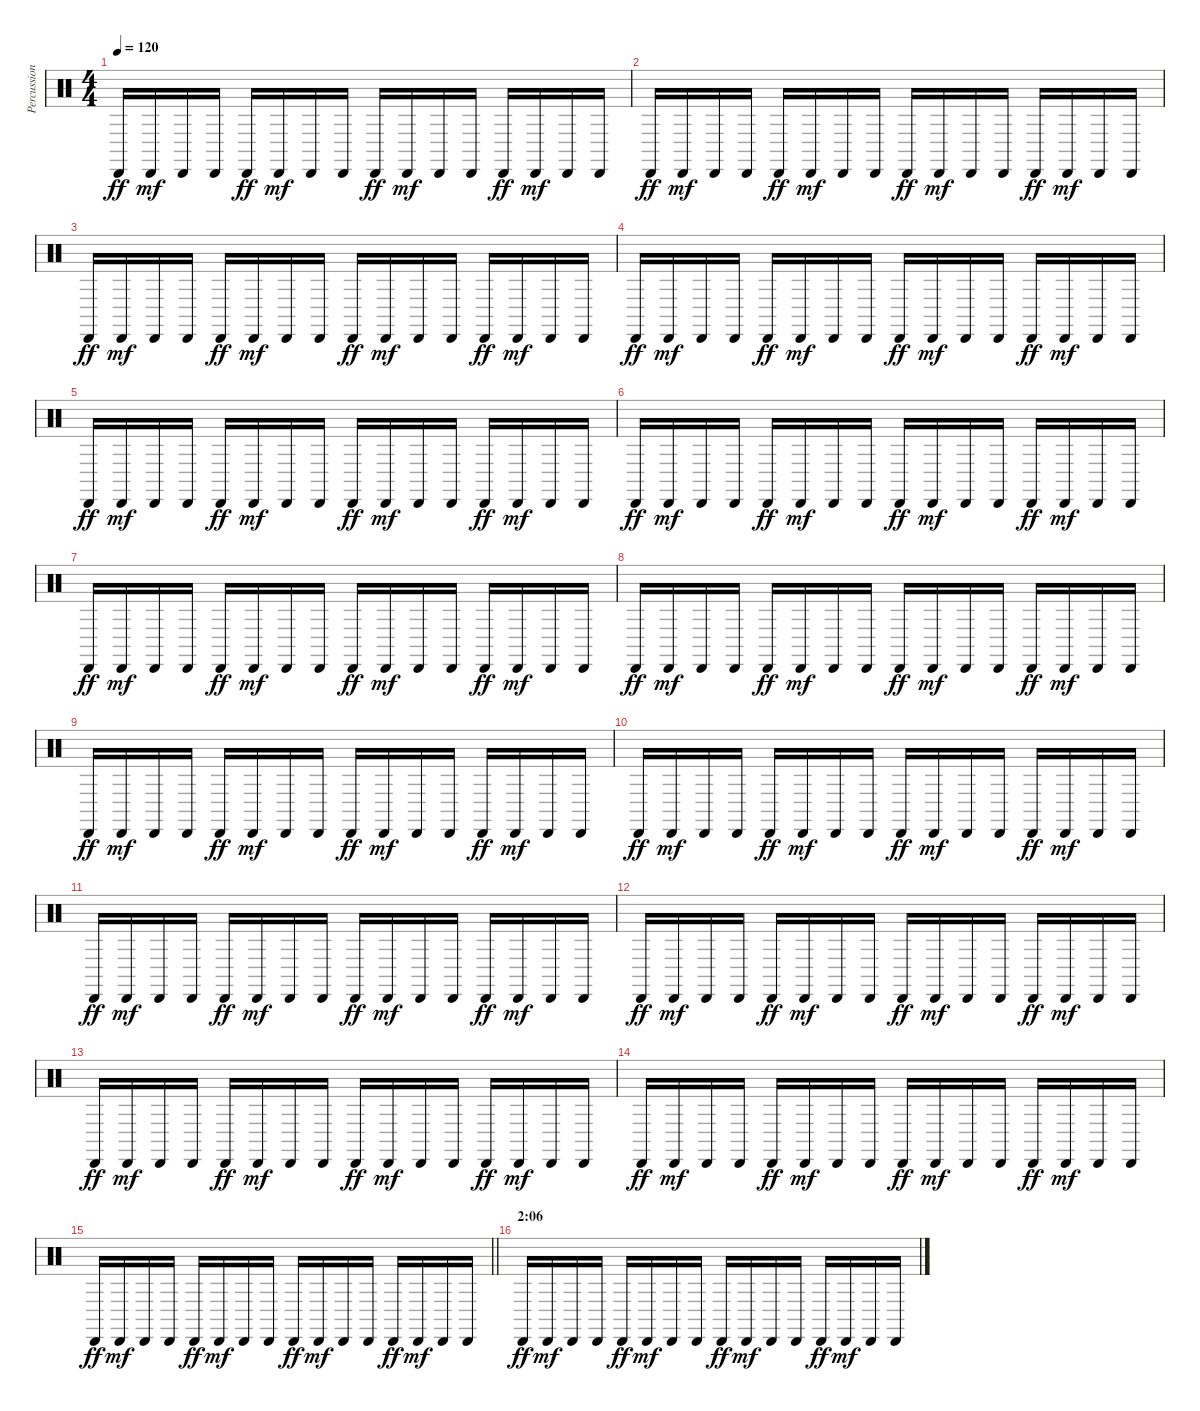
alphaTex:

\track ("Percussion" "Percussion") {instrument percussion}
\staff {score}
\articulation defaults
\ts (4 4)
\tempo 120
\clef neutral
\ks c "Cabasa (hit)".16{dy ff} "Cabasa (hit)".16{dy mf} "Cabasa (hit)".16 "Cabasa (hit)".16 "Cabasa (hit)".16{dy ff} "Cabasa (hit)".16{dy mf} "Cabasa (hit)".16 "Cabasa (hit)".16 "Cabasa (hit)".16{dy ff} "Cabasa (hit)".16{dy mf} "Cabasa (hit)".16 "Cabasa (hit)".16 "Cabasa (hit)".16{dy ff} "Cabasa (hit)".16{dy mf} "Cabasa (hit)".16 "Cabasa (hit)".16
|
"Cabasa (hit)".16{dy ff} "Cabasa (hit)".16{dy mf} "Cabasa (hit)".16 "Cabasa (hit)".16 "Cabasa (hit)".16{dy ff} "Cabasa (hit)".16{dy mf} "Cabasa (hit)".16 "Cabasa (hit)".16 "Cabasa (hit)".16{dy ff} "Cabasa (hit)".16{dy mf} "Cabasa (hit)".16 "Cabasa (hit)".16 "Cabasa (hit)".16{dy ff} "Cabasa (hit)".16{dy mf} "Cabasa (hit)".16 "Cabasa (hit)".16 |
"Cabasa (hit)".16{dy ff} "Cabasa (hit)".16{dy mf} "Cabasa (hit)".16 "Cabasa (hit)".16 "Cabasa (hit)".16{dy ff} "Cabasa (hit)".16{dy mf} "Cabasa (hit)".16 "Cabasa (hit)".16 "Cabasa (hit)".16{dy ff} "Cabasa (hit)".16{dy mf} "Cabasa (hit)".16 "Cabasa (hit)".16 "Cabasa (hit)".16{dy ff} "Cabasa (hit)".16{dy mf} "Cabasa (hit)".16 "Cabasa (hit)".16 |
"Cabasa (hit)".16{dy ff} "Cabasa (hit)".16{dy mf} "Cabasa (hit)".16 "Cabasa (hit)".16 "Cabasa (hit)".16{dy ff} "Cabasa (hit)".16{dy mf} "Cabasa (hit)".16 "Cabasa (hit)".16 "Cabasa (hit)".16{dy ff} "Cabasa (hit)".16{dy mf} "Cabasa (hit)".16 "Cabasa (hit)".16 "Cabasa (hit)".16{dy ff} "Cabasa (hit)".16{dy mf} "Cabasa (hit)".16 "Cabasa (hit)".16 |
"Cabasa (hit)".16{dy ff} "Cabasa (hit)".16{dy mf} "Cabasa (hit)".16 "Cabasa (hit)".16 "Cabasa (hit)".16{dy ff} "Cabasa (hit)".16{dy mf} "Cabasa (hit)".16 "Cabasa (hit)".16 "Cabasa (hit)".16{dy ff} "Cabasa (hit)".16{dy mf} "Cabasa (hit)".16 "Cabasa (hit)".16 "Cabasa (hit)".16{dy ff} "Cabasa (hit)".16{dy mf} "Cabasa (hit)".16 "Cabasa (hit)".16 |
"Cabasa (hit)".16{dy ff} "Cabasa (hit)".16{dy mf} "Cabasa (hit)".16 "Cabasa (hit)".16 "Cabasa (hit)".16{dy ff} "Cabasa (hit)".16{dy mf} "Cabasa (hit)".16 "Cabasa (hit)".16 "Cabasa (hit)".16{dy ff} "Cabasa (hit)".16{dy mf} "Cabasa (hit)".16 "Cabasa (hit)".16 "Cabasa (hit)".16{dy ff} "Cabasa (hit)".16{dy mf} "Cabasa (hit)".16 "Cabasa (hit)".16 |
"Cabasa (hit)".16{dy ff} "Cabasa (hit)".16{dy mf} "Cabasa (hit)".16 "Cabasa (hit)".16 "Cabasa (hit)".16{dy ff} "Cabasa (hit)".16{dy mf} "Cabasa (hit)".16 "Cabasa (hit)".16 "Cabasa (hit)".16{dy ff} "Cabasa (hit)".16{dy mf} "Cabasa (hit)".16 "Cabasa (hit)".16 "Cabasa (hit)".16{dy ff} "Cabasa (hit)".16{dy mf} "Cabasa (hit)".16 "Cabasa (hit)".16 |
"Cabasa (hit)".16{dy ff} "Cabasa (hit)".16{dy mf} "Cabasa (hit)".16 "Cabasa (hit)".16 "Cabasa (hit)".16{dy ff} "Cabasa (hit)".16{dy mf} "Cabasa (hit)".16 "Cabasa (hit)".16 "Cabasa (hit)".16{dy ff} "Cabasa (hit)".16{dy mf} "Cabasa (hit)".16 "Cabasa (hit)".16 "Cabasa (hit)".16{dy ff} "Cabasa (hit)".16{dy mf} "Cabasa (hit)".16 "Cabasa (hit)".16 |
"Cabasa (hit)".16{dy ff} "Cabasa (hit)".16{dy mf} "Cabasa (hit)".16 "Cabasa (hit)".16 "Cabasa (hit)".16{dy ff} "Cabasa (hit)".16{dy mf} "Cabasa (hit)".16 "Cabasa (hit)".16 "Cabasa (hit)".16{dy ff} "Cabasa (hit)".16{dy mf} "Cabasa (hit)".16 "Cabasa (hit)".16 "Cabasa (hit)".16{dy ff} "Cabasa (hit)".16{dy mf} "Cabasa (hit)".16 "Cabasa (hit)".16 |
"Cabasa (hit)".16{dy ff} "Cabasa (hit)".16{dy mf} "Cabasa (hit)".16 "Cabasa (hit)".16 "Cabasa (hit)".16{dy ff} "Cabasa (hit)".16{dy mf} "Cabasa (hit)".16 "Cabasa (hit)".16 "Cabasa (hit)".16{dy ff} "Cabasa (hit)".16{dy mf} "Cabasa (hit)".16 "Cabasa (hit)".16 "Cabasa (hit)".16{dy ff} "Cabasa (hit)".16{dy mf} "Cabasa (hit)".16 "Cabasa (hit)".16 |
"Cabasa (hit)".16{dy ff} "Cabasa (hit)".16{dy mf} "Cabasa (hit)".16 "Cabasa (hit)".16 "Cabasa (hit)".16{dy ff} "Cabasa (hit)".16{dy mf} "Cabasa (hit)".16 "Cabasa (hit)".16 "Cabasa (hit)".16{dy ff} "Cabasa (hit)".16{dy mf} "Cabasa (hit)".16 "Cabasa (hit)".16 "Cabasa (hit)".16{dy ff} "Cabasa (hit)".16{dy mf} "Cabasa (hit)".16 "Cabasa (hit)".16 |
"Cabasa (hit)".16{dy ff} "Cabasa (hit)".16{dy mf} "Cabasa (hit)".16 "Cabasa (hit)".16 "Cabasa (hit)".16{dy ff} "Cabasa (hit)".16{dy mf} "Cabasa (hit)".16 "Cabasa (hit)".16 "Cabasa (hit)".16{dy ff} "Cabasa (hit)".16{dy mf} "Cabasa (hit)".16 "Cabasa (hit)".16 "Cabasa (hit)".16{dy ff} "Cabasa (hit)".16{dy mf} "Cabasa (hit)".16 "Cabasa (hit)".16 |
"Cabasa (hit)".16{dy ff} "Cabasa (hit)".16{dy mf} "Cabasa (hit)".16 "Cabasa (hit)".16 "Cabasa (hit)".16{dy ff} "Cabasa (hit)".16{dy mf} "Cabasa (hit)".16 "Cabasa (hit)".16 "Cabasa (hit)".16{dy ff} "Cabasa (hit)".16{dy mf} "Cabasa (hit)".16 "Cabasa (hit)".16 "Cabasa (hit)".16{dy ff} "Cabasa (hit)".16{dy mf} "Cabasa (hit)".16 "Cabasa (hit)".16 |
"Cabasa (hit)".16{dy ff} "Cabasa (hit)".16{dy mf} "Cabasa (hit)".16 "Cabasa (hit)".16 "Cabasa (hit)".16{dy ff} "Cabasa (hit)".16{dy mf} "Cabasa (hit)".16 "Cabasa (hit)".16 "Cabasa (hit)".16{dy ff} "Cabasa (hit)".16{dy mf} "Cabasa (hit)".16 "Cabasa (hit)".16 "Cabasa (hit)".16{dy ff} "Cabasa (hit)".16{dy mf} "Cabasa (hit)".16 "Cabasa (hit)".16 |
\barLineRight lightlight "Cabasa (hit)".16{dy ff} "Cabasa (hit)".16{dy mf} "Cabasa (hit)".16 "Cabasa (hit)".16 "Cabasa (hit)".16{dy ff} "Cabasa (hit)".16{dy mf} "Cabasa (hit)".16 "Cabasa (hit)".16 "Cabasa (hit)".16{dy ff} "Cabasa (hit)".16{dy mf} "Cabasa (hit)".16 "Cabasa (hit)".16 "Cabasa (hit)".16{dy ff} "Cabasa (hit)".16{dy mf} "Cabasa (hit)".16 "Cabasa (hit)".16
|
\section ("" "2:06")
"Cabasa (hit)".16{dy ff} "Cabasa (hit)".16{dy mf} "Cabasa (hit)".16 "Cabasa (hit)".16 "Cabasa (hit)".16{dy ff} "Cabasa (hit)".16{dy mf} "Cabasa (hit)".16 "Cabasa (hit)".16 "Cabasa (hit)".16{dy ff} "Cabasa (hit)".16{dy mf} "Cabasa (hit)".16 "Cabasa (hit)".16 "Cabasa (hit)".16{dy ff} "Cabasa (hit)".16{dy mf} "Cabasa (hit)".16 "Cabasa (hit)".16
